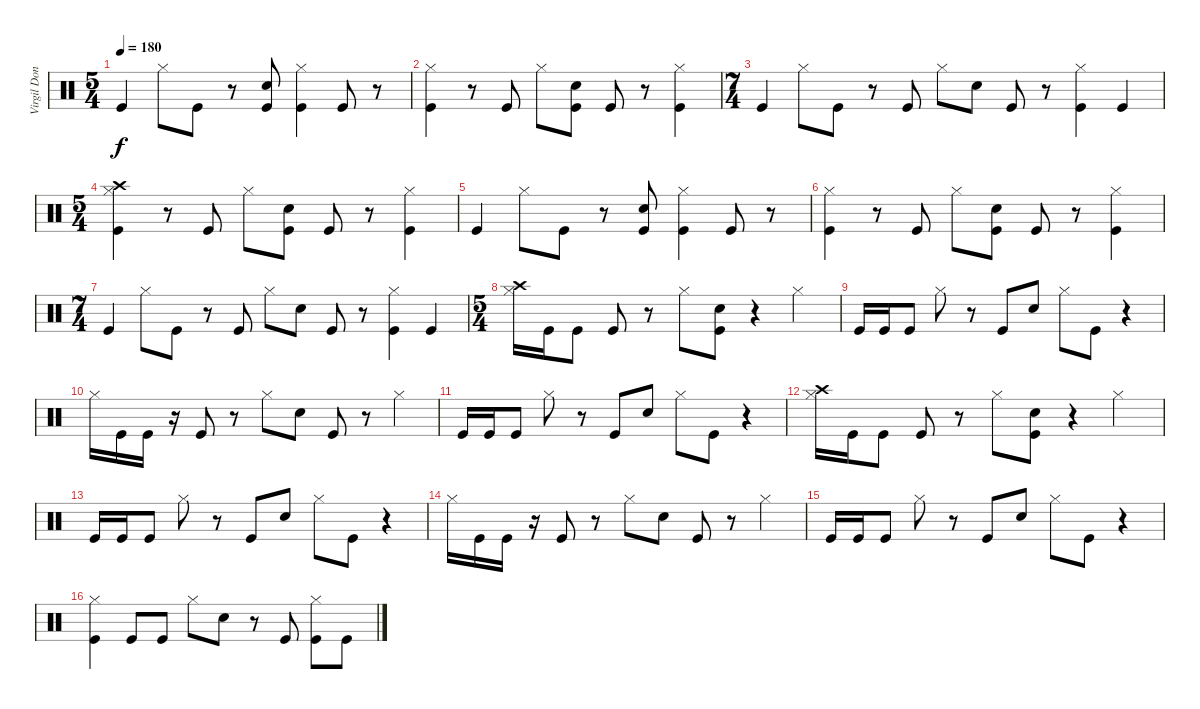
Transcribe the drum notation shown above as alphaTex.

\track ("Virgil Donati" "Virgil Don") {instrument percussion}
\staff {score}
\articulation defaults
\ts (5 4)
\tempo 180
\clef neutral
\ks c "Kick (hit)".4{dy f} "Hi-Hat (closed)".8 "Kick (hit)".8
r.8 ("Snare (hit) 2" "Kick (hit)").8 ("Hi-Hat (closed)" "Kick (hit)").4 "Kick (hit)".8 r.8 |
("Hi-Hat (closed)" "Kick (hit)").4 r.8 "Kick (hit)".8 "Hi-Hat (closed)".8 ("Snare (hit) 2" "Kick (hit)").8 "Kick (hit)".8 r.8 ("Hi-Hat (closed)" "Kick (hit)").4 |
\ts (7 4)
"Kick (hit)".4 "Hi-Hat (closed)".8 "Kick (hit)".8 r.8 "Kick (hit)".8 "Hi-Hat (closed)".8 "Snare (hit) 2".8 "Kick (hit)".8 r.8 ("Hi-Hat (closed)" "Kick (hit)").4 "Kick (hit)".4 |
\ts (5 4)
("Hi-Hat (closed)" "Crash high (hit)" "Kick (hit)").4 r.8 "Kick (hit)".8 "Hi-Hat (closed)".8 ("Snare (hit) 2" "Kick (hit)").8 "Kick (hit)".8 r.8 ("Hi-Hat (closed)" "Kick (hit)").4 |
"Kick (hit)".4 "Hi-Hat (closed)".8 "Kick (hit)".8 r.8 ("Snare (hit) 2" "Kick (hit)").8 ("Hi-Hat (closed)" "Kick (hit)").4 "Kick (hit)".8 r.8 |
("Hi-Hat (closed)" "Kick (hit)").4 r.8 "Kick (hit)".8 "Hi-Hat (closed)".8 ("Snare (hit) 2" "Kick (hit)").8 "Kick (hit)".8 r.8 ("Hi-Hat (closed)" "Kick (hit)").4 |
\ts (7 4)
"Kick (hit)".4 "Hi-Hat (closed)".8 "Kick (hit)".8 r.8 "Kick (hit)".8 "Hi-Hat (closed)".8 "Snare (hit) 2".8 "Kick (hit)".8 r.8 ("Hi-Hat (closed)" "Kick (hit)").4 "Kick (hit)".4 |
\ts (5 4)
("Hi-Hat (closed)" "Crash high (hit)").16 "Kick (hit)".16 "Kick (hit)".8 "Kick (hit)".8 r.8 "Hi-Hat (closed)".8 ("Snare (hit) 2" "Kick (hit)").8 r.4 "Hi-Hat (closed)".4 |
"Kick (hit)".16 "Kick (hit)".16 "Kick (hit)".8 "Hi-Hat (closed)".8 r.8 "Kick (hit)".8 "Snare (hit) 2".8 "Hi-Hat (closed)".8 "Kick (hit)".8 r.4 |
"Hi-Hat (closed)".16 "Kick (hit)".16 "Kick (hit)".16 r.16 "Kick (hit)".8 r.8 "Hi-Hat (closed)".8 "Snare (hit) 2".8 "Kick (hit)".8 r.8 "Hi-Hat (closed)".4 |
"Kick (hit)".16 "Kick (hit)".16 "Kick (hit)".8 "Hi-Hat (closed)".8 r.8 "Kick (hit)".8 "Snare (hit) 2".8 "Hi-Hat (closed)".8 "Kick (hit)".8 r.4 |
("Hi-Hat (closed)" "Crash high (hit)").16 "Kick (hit)".16 "Kick (hit)".8 "Kick (hit)".8 r.8 "Hi-Hat (closed)".8 ("Snare (hit) 2" "Kick (hit)").8 r.4 "Hi-Hat (closed)".4 |
"Kick (hit)".16 "Kick (hit)".16 "Kick (hit)".8 "Hi-Hat (closed)".8 r.8 "Kick (hit)".8 "Snare (hit) 2".8 "Hi-Hat (closed)".8 "Kick (hit)".8 r.4 |
"Hi-Hat (closed)".16 "Kick (hit)".16 "Kick (hit)".16 r.16 "Kick (hit)".8 r.8 "Hi-Hat (closed)".8 "Snare (hit) 2".8 "Kick (hit)".8 r.8 "Hi-Hat (closed)".4 |
"Kick (hit)".16 "Kick (hit)".16 "Kick (hit)".8 "Hi-Hat (closed)".8 r.8 "Kick (hit)".8 "Snare (hit) 2".8 "Hi-Hat (closed)".8 "Kick (hit)".8 r.4 |
("Hi-Hat (closed)" "Kick (hit)").4 "Kick (hit)".8 "Kick (hit)".8 "Hi-Hat (closed)".8 "Snare (hit) 2".8 r.8 "Kick (hit)".8 ("Hi-Hat (closed)" "Kick (hit)").8 "Kick (hit)".8
